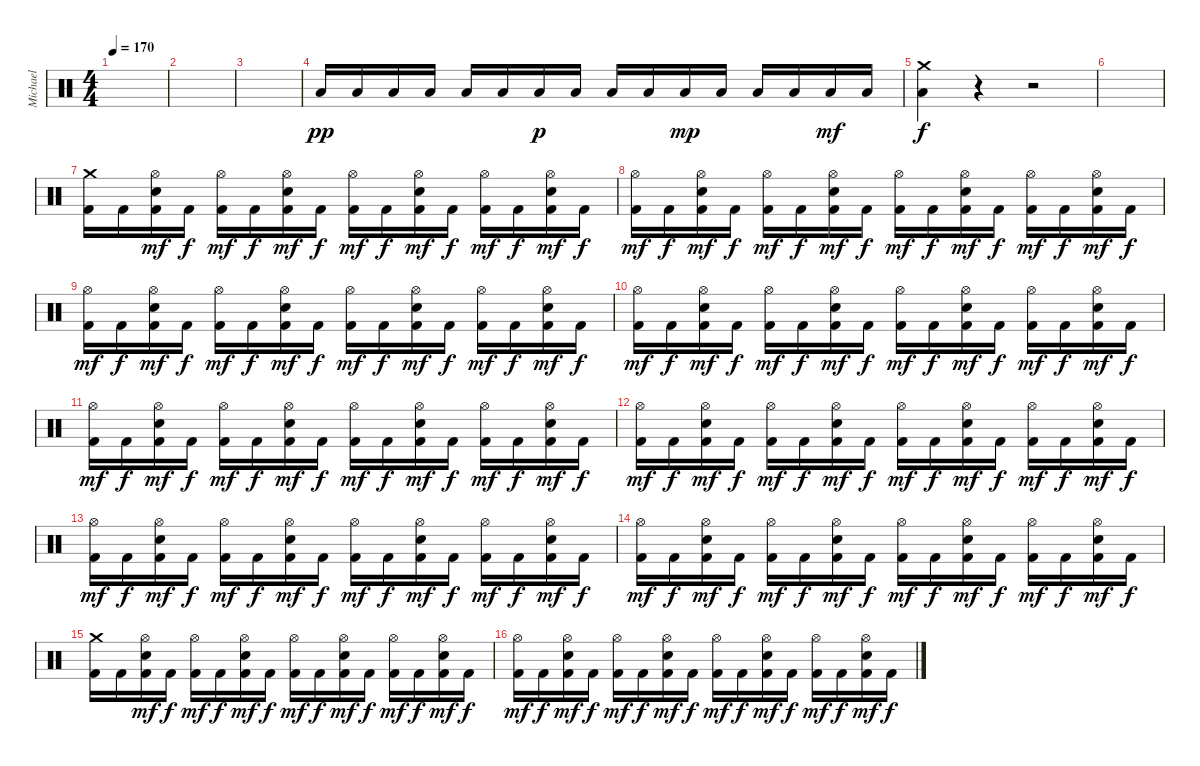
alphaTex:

\track ("Michael" "Michael") {instrument percussion}
\staff {score}
\articulation defaults
\ts (4 4)
\tempo 170
\clef neutral
\ks c
|
|
|
"Low Floor Tom (hit)".16{dy pp} "Low Floor Tom (hit)".16 "Low Floor Tom (hit)".16 "Low Floor Tom (hit)".16 "Low Floor Tom (hit)".16 "Low Floor Tom (hit)".16 "Low Floor Tom (hit)".16{dy p} "Low Floor Tom (hit)".16 "Low Floor Tom (hit)".16 "Low Floor Tom (hit)".16 "Low Floor Tom (hit)".16{dy mp} "Low Floor Tom (hit)".16 "Low Floor Tom (hit)".16 "Low Floor Tom (hit)".16 "Low Floor Tom (hit)".16{dy mf} "Low Floor Tom (hit)".16 |
("Crash medium (hit)" "Low Floor Tom (hit)").4{dy f} r.4 r.2 |
|
("Crash medium (hit)" "Kick (hit) 2").16 "Kick (hit) 2".16 ("Hi-Hat (open)" "Electric Snare (hit)" "Kick (hit) 2").16{dy mf} "Kick (hit) 2".16{dy f} ("Hi-Hat (open)" "Kick (hit) 2").16{dy mf} "Kick (hit) 2".16{dy f} ("Hi-Hat (open)" "Electric Snare (hit)" "Kick (hit) 2").16{dy mf} "Kick (hit) 2".16{dy f} ("Hi-Hat (open)" "Kick (hit) 2").16{dy mf} "Kick (hit) 2".16{dy f} ("Hi-Hat (open)" "Electric Snare (hit)" "Kick (hit) 2").16{dy mf} "Kick (hit) 2".16{dy f} ("Hi-Hat (open)" "Kick (hit) 2").16{dy mf} "Kick (hit) 2".16{dy f} ("Hi-Hat (open)" "Electric Snare (hit)" "Kick (hit) 2").16{dy mf} "Kick (hit) 2".16{dy f} |
("Hi-Hat (open)" "Kick (hit) 2").16{dy mf} "Kick (hit) 2".16{dy f} ("Hi-Hat (open)" "Electric Snare (hit)" "Kick (hit) 2").16{dy mf} "Kick (hit) 2".16{dy f} ("Hi-Hat (open)" "Kick (hit) 2").16{dy mf} "Kick (hit) 2".16{dy f} ("Hi-Hat (open)" "Electric Snare (hit)" "Kick (hit) 2").16{dy mf} "Kick (hit) 2".16{dy f} ("Hi-Hat (open)" "Kick (hit) 2").16{dy mf} "Kick (hit) 2".16{dy f} ("Hi-Hat (open)" "Electric Snare (hit)" "Kick (hit) 2").16{dy mf} "Kick (hit) 2".16{dy f} ("Hi-Hat (open)" "Kick (hit) 2").16{dy mf} "Kick (hit) 2".16{dy f} ("Hi-Hat (open)" "Electric Snare (hit)" "Kick (hit) 2").16{dy mf} "Kick (hit) 2".16{dy f} |
("Hi-Hat (open)" "Kick (hit) 2").16{dy mf} "Kick (hit) 2".16{dy f} ("Hi-Hat (open)" "Electric Snare (hit)" "Kick (hit) 2").16{dy mf} "Kick (hit) 2".16{dy f} ("Hi-Hat (open)" "Kick (hit) 2").16{dy mf} "Kick (hit) 2".16{dy f} ("Hi-Hat (open)" "Electric Snare (hit)" "Kick (hit) 2").16{dy mf} "Kick (hit) 2".16{dy f} ("Hi-Hat (open)" "Kick (hit) 2").16{dy mf} "Kick (hit) 2".16{dy f} ("Hi-Hat (open)" "Electric Snare (hit)" "Kick (hit) 2").16{dy mf} "Kick (hit) 2".16{dy f} ("Hi-Hat (open)" "Kick (hit) 2").16{dy mf} "Kick (hit) 2".16{dy f} ("Hi-Hat (open)" "Electric Snare (hit)" "Kick (hit) 2").16{dy mf} "Kick (hit) 2".16{dy f} |
("Hi-Hat (open)" "Kick (hit) 2").16{dy mf} "Kick (hit) 2".16{dy f} ("Hi-Hat (open)" "Electric Snare (hit)" "Kick (hit) 2").16{dy mf} "Kick (hit) 2".16{dy f} ("Hi-Hat (open)" "Kick (hit) 2").16{dy mf} "Kick (hit) 2".16{dy f} ("Hi-Hat (open)" "Electric Snare (hit)" "Kick (hit) 2").16{dy mf} "Kick (hit) 2".16{dy f} ("Hi-Hat (open)" "Kick (hit) 2").16{dy mf} "Kick (hit) 2".16{dy f} ("Hi-Hat (open)" "Electric Snare (hit)" "Kick (hit) 2").16{dy mf} "Kick (hit) 2".16{dy f} ("Hi-Hat (open)" "Kick (hit) 2").16{dy mf} "Kick (hit) 2".16{dy f} ("Hi-Hat (open)" "Electric Snare (hit)" "Kick (hit) 2").16{dy mf} "Kick (hit) 2".16{dy f} |
("Hi-Hat (open)" "Kick (hit) 2").16{dy mf} "Kick (hit) 2".16{dy f} ("Hi-Hat (open)" "Electric Snare (hit)" "Kick (hit) 2").16{dy mf} "Kick (hit) 2".16{dy f} ("Hi-Hat (open)" "Kick (hit) 2").16{dy mf} "Kick (hit) 2".16{dy f} ("Hi-Hat (open)" "Electric Snare (hit)" "Kick (hit) 2").16{dy mf} "Kick (hit) 2".16{dy f} ("Hi-Hat (open)" "Kick (hit) 2").16{dy mf} "Kick (hit) 2".16{dy f} ("Hi-Hat (open)" "Electric Snare (hit)" "Kick (hit) 2").16{dy mf} "Kick (hit) 2".16{dy f} ("Hi-Hat (open)" "Kick (hit) 2").16{dy mf} "Kick (hit) 2".16{dy f} ("Hi-Hat (open)" "Electric Snare (hit)" "Kick (hit) 2").16{dy mf} "Kick (hit) 2".16{dy f} |
("Hi-Hat (open)" "Kick (hit) 2").16{dy mf} "Kick (hit) 2".16{dy f} ("Hi-Hat (open)" "Electric Snare (hit)" "Kick (hit) 2").16{dy mf} "Kick (hit) 2".16{dy f} ("Hi-Hat (open)" "Kick (hit) 2").16{dy mf} "Kick (hit) 2".16{dy f} ("Hi-Hat (open)" "Electric Snare (hit)" "Kick (hit) 2").16{dy mf} "Kick (hit) 2".16{dy f} ("Hi-Hat (open)" "Kick (hit) 2").16{dy mf} "Kick (hit) 2".16{dy f} ("Hi-Hat (open)" "Electric Snare (hit)" "Kick (hit) 2").16{dy mf} "Kick (hit) 2".16{dy f} ("Hi-Hat (open)" "Kick (hit) 2").16{dy mf} "Kick (hit) 2".16{dy f} ("Hi-Hat (open)" "Electric Snare (hit)" "Kick (hit) 2").16{dy mf} "Kick (hit) 2".16{dy f} |
("Hi-Hat (open)" "Kick (hit) 2").16{dy mf} "Kick (hit) 2".16{dy f} ("Hi-Hat (open)" "Electric Snare (hit)" "Kick (hit) 2").16{dy mf} "Kick (hit) 2".16{dy f} ("Hi-Hat (open)" "Kick (hit) 2").16{dy mf} "Kick (hit) 2".16{dy f} ("Hi-Hat (open)" "Electric Snare (hit)" "Kick (hit) 2").16{dy mf} "Kick (hit) 2".16{dy f} ("Hi-Hat (open)" "Kick (hit) 2").16{dy mf} "Kick (hit) 2".16{dy f} ("Hi-Hat (open)" "Electric Snare (hit)" "Kick (hit) 2").16{dy mf} "Kick (hit) 2".16{dy f} ("Hi-Hat (open)" "Kick (hit) 2").16{dy mf} "Kick (hit) 2".16{dy f} ("Hi-Hat (open)" "Electric Snare (hit)" "Kick (hit) 2").16{dy mf} "Kick (hit) 2".16{dy f} |
("Hi-Hat (open)" "Kick (hit) 2").16{dy mf} "Kick (hit) 2".16{dy f} ("Hi-Hat (open)" "Electric Snare (hit)" "Kick (hit) 2").16{dy mf} "Kick (hit) 2".16{dy f} ("Hi-Hat (open)" "Kick (hit) 2").16{dy mf} "Kick (hit) 2".16{dy f} ("Hi-Hat (open)" "Electric Snare (hit)" "Kick (hit) 2").16{dy mf} "Kick (hit) 2".16{dy f} ("Hi-Hat (open)" "Kick (hit) 2").16{dy mf} "Kick (hit) 2".16{dy f} ("Hi-Hat (open)" "Electric Snare (hit)" "Kick (hit) 2").16{dy mf} "Kick (hit) 2".16{dy f} ("Hi-Hat (open)" "Kick (hit) 2").16{dy mf} "Kick (hit) 2".16{dy f} ("Hi-Hat (open)" "Electric Snare (hit)" "Kick (hit) 2").16{dy mf} "Kick (hit) 2".16{dy f} |
("Crash medium (hit)" "Kick (hit) 2").16 "Kick (hit) 2".16 ("Hi-Hat (open)" "Electric Snare (hit)" "Kick (hit) 2").16{dy mf} "Kick (hit) 2".16{dy f} ("Hi-Hat (open)" "Kick (hit) 2").16{dy mf} "Kick (hit) 2".16{dy f} ("Hi-Hat (open)" "Electric Snare (hit)" "Kick (hit) 2").16{dy mf} "Kick (hit) 2".16{dy f} ("Hi-Hat (open)" "Kick (hit) 2").16{dy mf} "Kick (hit) 2".16{dy f} ("Hi-Hat (open)" "Electric Snare (hit)" "Kick (hit) 2").16{dy mf} "Kick (hit) 2".16{dy f} ("Hi-Hat (open)" "Kick (hit) 2").16{dy mf} "Kick (hit) 2".16{dy f} ("Hi-Hat (open)" "Electric Snare (hit)" "Kick (hit) 2").16{dy mf} "Kick (hit) 2".16{dy f} |
("Hi-Hat (open)" "Kick (hit) 2").16{dy mf} "Kick (hit) 2".16{dy f} ("Hi-Hat (open)" "Electric Snare (hit)" "Kick (hit) 2").16{dy mf} "Kick (hit) 2".16{dy f} ("Hi-Hat (open)" "Kick (hit) 2").16{dy mf} "Kick (hit) 2".16{dy f} ("Hi-Hat (open)" "Electric Snare (hit)" "Kick (hit) 2").16{dy mf} "Kick (hit) 2".16{dy f} ("Hi-Hat (open)" "Kick (hit) 2").16{dy mf} "Kick (hit) 2".16{dy f} ("Hi-Hat (open)" "Electric Snare (hit)" "Kick (hit) 2").16{dy mf} "Kick (hit) 2".16{dy f} ("Hi-Hat (open)" "Kick (hit) 2").16{dy mf} "Kick (hit) 2".16{dy f} ("Hi-Hat (open)" "Electric Snare (hit)" "Kick (hit) 2").16{dy mf} "Kick (hit) 2".16{dy f}
